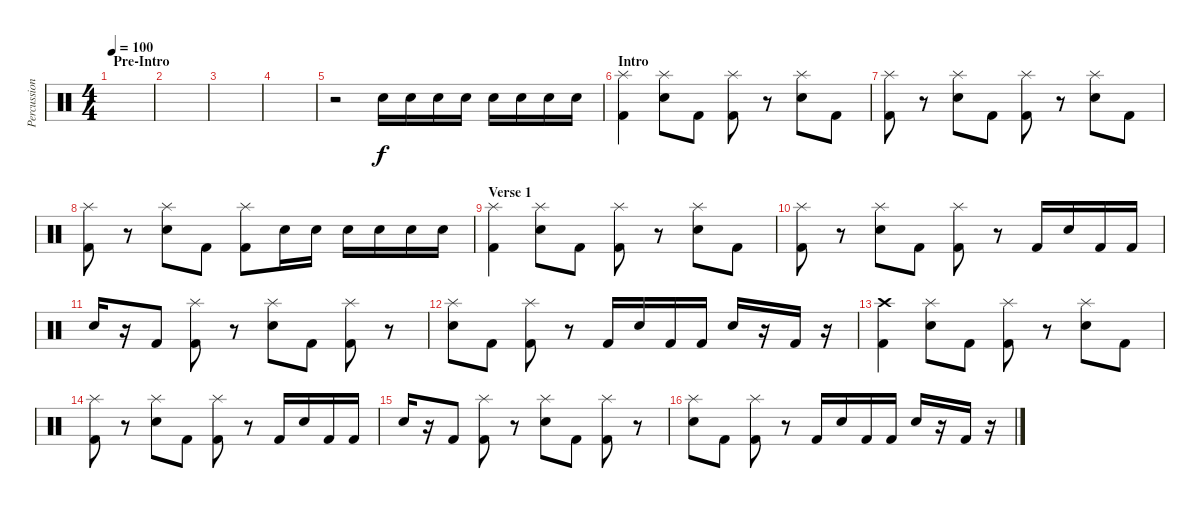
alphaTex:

\track ("Percussions" "Percussion") {instrument percussion}
\staff {score}
\articulation defaults
\ts (4 4)
\section ("" "Pre-Intro")
\tempo 100
\clef neutral
\ks c
|
|
|
|
r.2 "Electric Snare (hit)".16 "Electric Snare (hit)".16 "Electric Snare (hit)".16 "Electric Snare (hit)".16 "Electric Snare (hit)".16 "Electric Snare (hit)".16 "Electric Snare (hit)".16 "Electric Snare (hit)".16 |
\section ("" "Intro")
("Splash (hit)" "Kick (hit) 2").4 ("Splash (hit)" "Electric Snare (hit)").8 "Kick (hit) 2".8 ("Splash (hit)" "Kick (hit) 2").8 r.8 ("Splash (hit)" "Electric Snare (hit)").8 "Kick (hit) 2".8 |
("Splash (hit)" "Kick (hit) 2").8 r.8 ("Splash (hit)" "Electric Snare (hit)").8 "Kick (hit) 2".8 ("Splash (hit)" "Kick (hit) 2").8 r.8 ("Splash (hit)" "Electric Snare (hit)").8 "Kick (hit) 2".8 |
("Splash (hit)" "Kick (hit) 2").8 r.8 ("Splash (hit)" "Electric Snare (hit)").8 "Kick (hit) 2".8 ("Splash (hit)" "Kick (hit) 2").8 "Electric Snare (hit)".16 "Electric Snare (hit)".16 "Electric Snare (hit)".16 "Electric Snare (hit)".16 "Electric Snare (hit)".16 "Electric Snare (hit)".16 |
\section ("" "Verse 1")
("Splash (hit)" "Kick (hit) 2").4 ("Splash (hit)" "Electric Snare (hit)").8 "Kick (hit) 2".8 ("Splash (hit)" "Kick (hit) 2").8 r.8 ("Splash (hit)" "Electric Snare (hit)").8 "Kick (hit) 2".8 |
("Splash (hit)" "Kick (hit) 2").8 r.8 ("Splash (hit)" "Electric Snare (hit)").8 "Kick (hit) 2".8 ("Splash (hit)" "Kick (hit) 2").8 r.8 "Kick (hit) 2".16 "Electric Snare (hit)".16 "Kick (hit) 2".16 "Kick (hit) 2".16 |
"Electric Snare (hit)".16 r.16 "Kick (hit) 2".8 ("Splash (hit)" "Kick (hit) 2").8 r.8 ("Splash (hit)" "Electric Snare (hit)").8 "Kick (hit) 2".8 ("Splash (hit)" "Kick (hit) 2").8 r.8 |
("Splash (hit)" "Electric Snare (hit)").8 "Kick (hit) 2".8 ("Splash (hit)" "Kick (hit) 2").8 r.8 "Kick (hit) 2".16 "Electric Snare (hit)".16 "Kick (hit) 2".16 "Kick (hit) 2".16 "Electric Snare (hit)".16 r.16 "Kick (hit) 2".16 r.16 |
("Crash high (hit)" "Kick (hit) 2").4 ("Splash (hit)" "Electric Snare (hit)").8 "Kick (hit) 2".8 ("Splash (hit)" "Kick (hit) 2").8 r.8 ("Splash (hit)" "Electric Snare (hit)").8 "Kick (hit) 2".8 |
("Splash (hit)" "Kick (hit) 2").8 r.8 ("Splash (hit)" "Electric Snare (hit)").8 "Kick (hit) 2".8 ("Splash (hit)" "Kick (hit) 2").8 r.8 "Kick (hit) 2".16 "Electric Snare (hit)".16 "Kick (hit) 2".16 "Kick (hit) 2".16 |
"Electric Snare (hit)".16 r.16 "Kick (hit) 2".8 ("Splash (hit)" "Kick (hit) 2").8 r.8 ("Splash (hit)" "Electric Snare (hit)").8 "Kick (hit) 2".8 ("Splash (hit)" "Kick (hit) 2").8 r.8 |
("Splash (hit)" "Electric Snare (hit)").8 "Kick (hit) 2".8 ("Splash (hit)" "Kick (hit) 2").8 r.8 "Kick (hit) 2".16 "Electric Snare (hit)".16 "Kick (hit) 2".16 "Kick (hit) 2".16 "Electric Snare (hit)".16 r.16 "Kick (hit) 2".16 r.16
